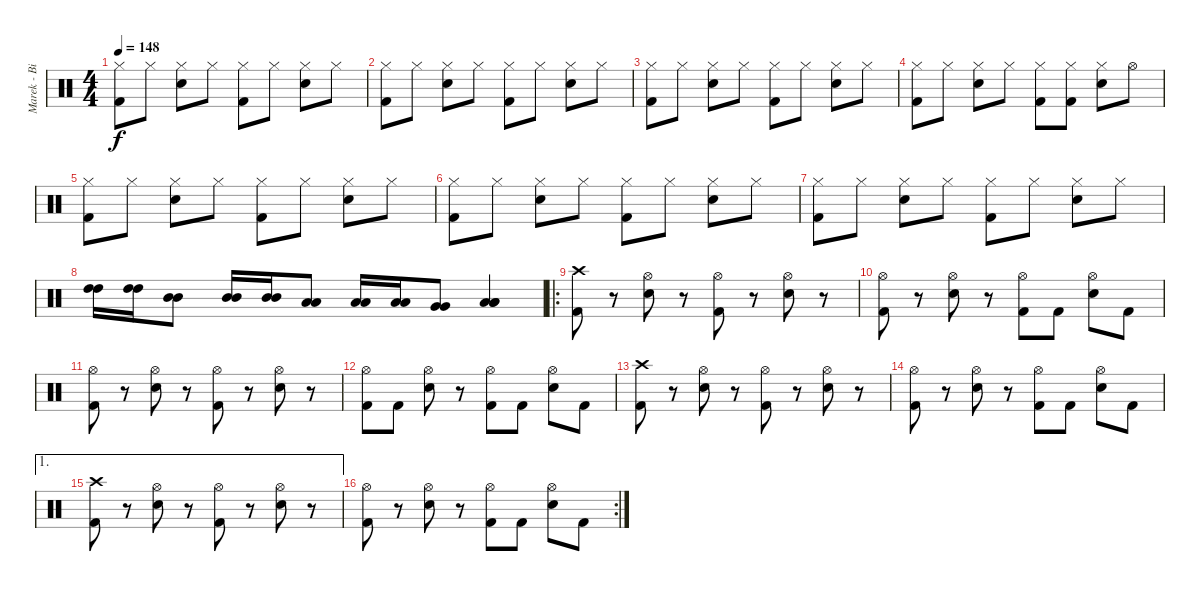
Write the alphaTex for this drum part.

\track ("Marek - Bicie" "Marek - Bi") {instrument percussion}
\staff {score}
\articulation defaults
\ts (4 4)
\tempo 148
\clef neutral
\ks c
("Hi-Hat (closed)" "Kick (hit) 2").8{dy f} "Hi-Hat (closed)".8 ("Hi-Hat (closed)" "Electric Snare (hit)").8 "Hi-Hat (closed)".8 ("Hi-Hat (closed)" "Kick (hit) 2").8 "Hi-Hat (closed)".8 ("Hi-Hat (closed)" "Electric Snare (hit)").8 "Hi-Hat (closed)".8 |
("Hi-Hat (closed)" "Kick (hit) 2").8 "Hi-Hat (closed)".8 ("Hi-Hat (closed)" "Electric Snare (hit)").8 "Hi-Hat (closed)".8 ("Hi-Hat (closed)" "Kick (hit) 2").8 "Hi-Hat (closed)".8 ("Hi-Hat (closed)" "Electric Snare (hit)").8 "Hi-Hat (closed)".8 |
("Hi-Hat (closed)" "Kick (hit) 2").8 "Hi-Hat (closed)".8 ("Hi-Hat (closed)" "Electric Snare (hit)").8 "Hi-Hat (closed)".8 ("Hi-Hat (closed)" "Kick (hit) 2").8 "Hi-Hat (closed)".8 ("Hi-Hat (closed)" "Electric Snare (hit)").8 "Hi-Hat (closed)".8 |
("Hi-Hat (closed)" "Kick (hit) 2").8 "Hi-Hat (closed)".8 ("Hi-Hat (closed)" "Electric Snare (hit)").8 "Hi-Hat (closed)".8 ("Hi-Hat (closed)" "Kick (hit) 2").8 ("Hi-Hat (closed)" "Kick (hit) 2").8 ("Hi-Hat (closed)" "Electric Snare (hit)").8 "Hi-Hat (open)".8 |
("Hi-Hat (closed)" "Kick (hit) 2").8 "Hi-Hat (closed)".8 ("Hi-Hat (closed)" "Electric Snare (hit)").8 "Hi-Hat (closed)".8 ("Hi-Hat (closed)" "Kick (hit) 2").8 "Hi-Hat (closed)".8 ("Hi-Hat (closed)" "Electric Snare (hit)").8 "Hi-Hat (closed)".8 |
("Hi-Hat (closed)" "Kick (hit) 2").8 "Hi-Hat (closed)".8 ("Hi-Hat (closed)" "Electric Snare (hit)").8 "Hi-Hat (closed)".8 ("Hi-Hat (closed)" "Kick (hit) 2").8 "Hi-Hat (closed)".8 ("Hi-Hat (closed)" "Electric Snare (hit)").8 "Hi-Hat (closed)".8 |
("Hi-Hat (closed)" "Kick (hit) 2").8 "Hi-Hat (closed)".8 ("Hi-Hat (closed)" "Electric Snare (hit)").8 "Hi-Hat (closed)".8 ("Hi-Hat (closed)" "Kick (hit) 2").8 "Hi-Hat (closed)".8 ("Hi-Hat (closed)" "Electric Snare (hit)").8 "Hi-Hat (closed)".8 |
("High Tom (hit)" "High Tom (hit)").16 ("High Tom (hit)" "High Tom (hit)").16 ("Mid Tom (hit)" "Mid Tom (hit)").8 ("Mid Tom (hit)" "Mid Tom (hit)").16 ("Mid Tom (hit)" "Mid Tom (hit)").16 ("Low Tom (hit)" "Low Tom (hit)").8 ("Low Tom (hit)" "Low Tom (hit)").16 ("Low Tom (hit)" "Low Tom (hit)").16 ("Very Low Tom (hit)" "Very Low Tom (hit)").8 ("Low Floor Tom (hit)" "Low Floor Tom (hit)" "Low Floor Tom (hit)").4 |
\ro
("Crash high (hit)" "Kick (hit) 2").8 r.8 ("Hi-Hat (open)" "Electric Snare (hit)").8 r.8 ("Hi-Hat (open)" "Kick (hit) 2").8 r.8 ("Hi-Hat (open)" "Electric Snare (hit)").8 r.8 |
("Hi-Hat (open)" "Kick (hit) 2").8 r.8 ("Hi-Hat (open)" "Electric Snare (hit)").8 r.8 ("Hi-Hat (open)" "Kick (hit) 2").8 "Kick (hit) 2".8 ("Hi-Hat (open)" "Electric Snare (hit)").8 "Kick (hit) 2".8 |
("Hi-Hat (open)" "Kick (hit) 2").8 r.8 ("Hi-Hat (open)" "Electric Snare (hit)").8 r.8 ("Hi-Hat (open)" "Kick (hit) 2").8 r.8 ("Hi-Hat (open)" "Electric Snare (hit)").8 r.8 |
("Hi-Hat (open)" "Kick (hit) 2").8 "Kick (hit) 2".8 ("Hi-Hat (open)" "Electric Snare (hit)").8 r.8 ("Hi-Hat (open)" "Kick (hit) 2").8 "Kick (hit) 2".8 ("Hi-Hat (open)" "Electric Snare (hit)").8 "Kick (hit) 2".8 |
("Crash high (hit)" "Kick (hit) 2").8 r.8 ("Hi-Hat (open)" "Electric Snare (hit)").8 r.8 ("Hi-Hat (open)" "Kick (hit) 2").8 r.8 ("Hi-Hat (open)" "Electric Snare (hit)").8 r.8 |
("Hi-Hat (open)" "Kick (hit) 2").8 r.8 ("Hi-Hat (open)" "Electric Snare (hit)").8 r.8 ("Hi-Hat (open)" "Kick (hit) 2").8 "Kick (hit) 2".8 ("Hi-Hat (open)" "Electric Snare (hit)").8 "Kick (hit) 2".8 |
\ae 1
("Crash high (hit)" "Kick (hit) 2").8 r.8 ("Hi-Hat (open)" "Electric Snare (hit)").8 r.8 ("Hi-Hat (open)" "Kick (hit) 2").8 r.8 ("Hi-Hat (open)" "Electric Snare (hit)").8 r.8 |
\rc 2
("Hi-Hat (open)" "Kick (hit) 2").8 r.8 ("Hi-Hat (open)" "Electric Snare (hit)").8 r.8 ("Hi-Hat (open)" "Kick (hit) 2").8 "Kick (hit) 2".8 ("Hi-Hat (open)" "Electric Snare (hit)").8 "Kick (hit) 2".8
